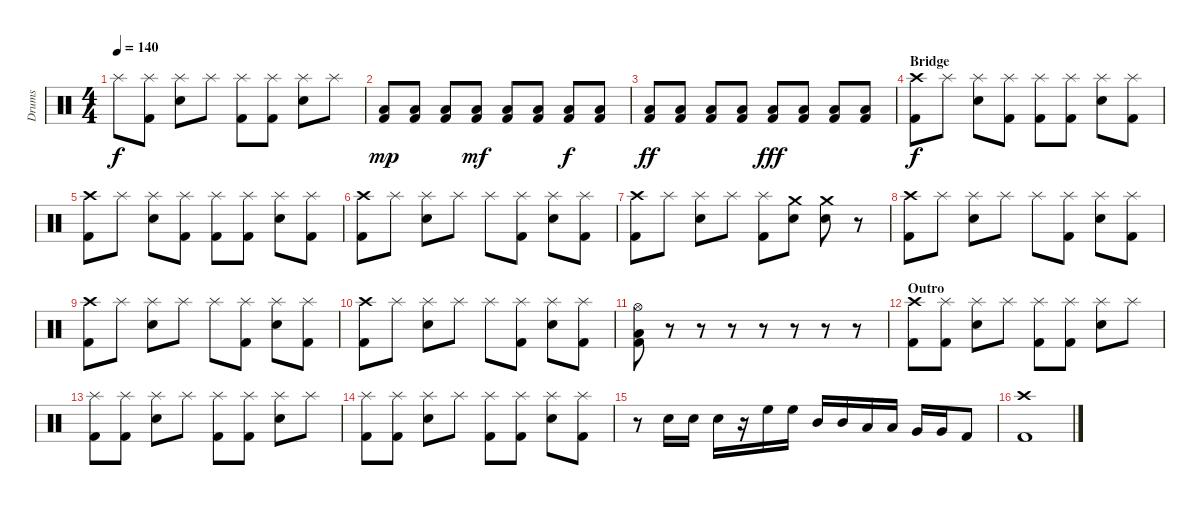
\track ("Drums" "Drums") {instrument percussion}
\staff {score}
\articulation defaults
\ts (4 4)
\tempo 140
\clef neutral
\ks c "Splash (hit)".8{dy f}
("Splash (hit)" "Kick (hit) 2").8 ("Splash (hit)" "Electric Snare (hit)").8 "Splash (hit)".8 ("Splash (hit)" "Kick (hit) 2").8 ("Splash (hit)" "Kick (hit) 2").8 ("Splash (hit)" "Electric Snare (hit)").8 "Splash (hit)".8 |
("Low Floor Tom (hit)" "Kick (hit) 2").8{dy mp} ("Low Floor Tom (hit)" "Kick (hit) 2").8 ("Low Floor Tom (hit)" "Kick (hit) 2").8 ("Low Floor Tom (hit)" "Kick (hit) 2").8{dy mf} ("Low Floor Tom (hit)" "Kick (hit) 2").8 ("Low Floor Tom (hit)" "Kick (hit) 2").8 ("Low Floor Tom (hit)" "Kick (hit) 2").8{dy f} ("Low Floor Tom (hit)" "Kick (hit) 2").8 |
("Low Floor Tom (hit)" "Kick (hit) 2").8{dy ff} ("Low Floor Tom (hit)" "Kick (hit) 2").8 ("Low Floor Tom (hit)" "Kick (hit) 2").8 ("Low Floor Tom (hit)" "Kick (hit) 2").8 ("Low Floor Tom (hit)" "Kick (hit) 2").8{dy fff} ("Low Floor Tom (hit)" "Kick (hit) 2").8 ("Low Floor Tom (hit)" "Kick (hit) 2").8 ("Low Floor Tom (hit)" "Kick (hit) 2").8 |
\section ("" "Bridge")
("Crash high (hit)" "Kick (hit) 2").8{dy f} "Splash (hit)".8 ("Splash (hit)" "Electric Snare (hit)").8 ("Splash (hit)" "Kick (hit) 2").8 ("Splash (hit)" "Kick (hit) 2").8 ("Splash (hit)" "Kick (hit) 2").8 ("Splash (hit)" "Electric Snare (hit)").8 ("Splash (hit)" "Kick (hit) 2").8 |
("Crash high (hit)" "Kick (hit) 2").8 "Splash (hit)".8 ("Splash (hit)" "Electric Snare (hit)").8 ("Splash (hit)" "Kick (hit) 2").8 ("Splash (hit)" "Kick (hit) 2").8 ("Splash (hit)" "Kick (hit) 2").8 ("Splash (hit)" "Electric Snare (hit)").8 ("Splash (hit)" "Kick (hit) 2").8 |
("Crash high (hit)" "Kick (hit) 2").8 "Splash (hit)".8 ("Splash (hit)" "Electric Snare (hit)").8 "Splash (hit)".8 "Splash (hit)".8 ("Splash (hit)" "Kick (hit) 2").8 ("Splash (hit)" "Electric Snare (hit)").8 ("Splash (hit)" "Kick (hit) 2").8 |
("Crash high (hit)" "Kick (hit) 2").8 "Splash (hit)".8 ("Splash (hit)" "Electric Snare (hit)").8 "Splash (hit)".8 ("Splash (hit)" "Kick (hit) 2").8 ("Crash medium (hit)" "Electric Snare (hit)").8 ("Crash medium (hit)" "Electric Snare (hit)").8 r.8 |
("Crash high (hit)" "Kick (hit) 2").8 "Splash (hit)".8 ("Splash (hit)" "Electric Snare (hit)").8 "Splash (hit)".8 "Splash (hit)".8 ("Splash (hit)" "Kick (hit) 2").8 ("Splash (hit)" "Electric Snare (hit)").8 ("Splash (hit)" "Kick (hit) 2").8 |
("Crash high (hit)" "Kick (hit) 2").8 "Splash (hit)".8 ("Splash (hit)" "Electric Snare (hit)").8 "Splash (hit)".8 "Splash (hit)".8 ("Splash (hit)" "Kick (hit) 2").8 ("Splash (hit)" "Electric Snare (hit)").8 ("Splash (hit)" "Kick (hit) 2").8 |
("Crash high (hit)" "Kick (hit) 2").8 "Splash (hit)".8 ("Splash (hit)" "Electric Snare (hit)").8 "Splash (hit)".8 "Splash (hit)".8 ("Splash (hit)" "Kick (hit) 2").8 ("Splash (hit)" "Electric Snare (hit)").8 ("Splash (hit)" "Kick (hit) 2").8 |
("Hi-Hat (open)" "Low Floor Tom (hit)" "Kick (hit) 2").8 r.8 r.8 r.8 r.8 r.8 r.8 r.8 |
\section ("" "Outro")
("Crash high (hit)" "Kick (hit) 2").8 ("Splash (hit)" "Kick (hit) 2").8 ("Splash (hit)" "Electric Snare (hit)").8 "Splash (hit)".8 ("Splash (hit)" "Kick (hit) 2").8 ("Splash (hit)" "Kick (hit) 2").8 ("Splash (hit)" "Electric Snare (hit)").8 "Splash (hit)".8 |
("Splash (hit)" "Kick (hit) 2").8 ("Splash (hit)" "Kick (hit) 2").8 ("Splash (hit)" "Electric Snare (hit)").8 "Splash (hit)".8 ("Splash (hit)" "Kick (hit) 2").8 ("Splash (hit)" "Kick (hit) 2").8 ("Splash (hit)" "Electric Snare (hit)").8 "Splash (hit)".8 |
("Splash (hit)" "Kick (hit) 2").8 ("Splash (hit)" "Kick (hit) 2").8 ("Splash (hit)" "Electric Snare (hit)").8 "Splash (hit)".8 ("Splash (hit)" "Kick (hit) 2").8 ("Splash (hit)" "Kick (hit) 2").8 ("Splash (hit)" "Electric Snare (hit)").8 ("Splash (hit)" "Kick (hit) 2").8 |
r.8 "Electric Snare (hit)".16 "Electric Snare (hit)".16 "Electric Snare (hit)".16 r.16 "High Floor Tom (hit)".16 "High Floor Tom (hit)".16 "Mid Tom (hit)".16 "Mid Tom (hit)".16 "Low Tom (hit)".16 "Low Tom (hit)".16 "Very Low Tom (hit)".16 "Very Low Tom (hit)".16 "Kick (hit) 2".8 |
("Crash high (hit)" "Kick (hit) 2").1
